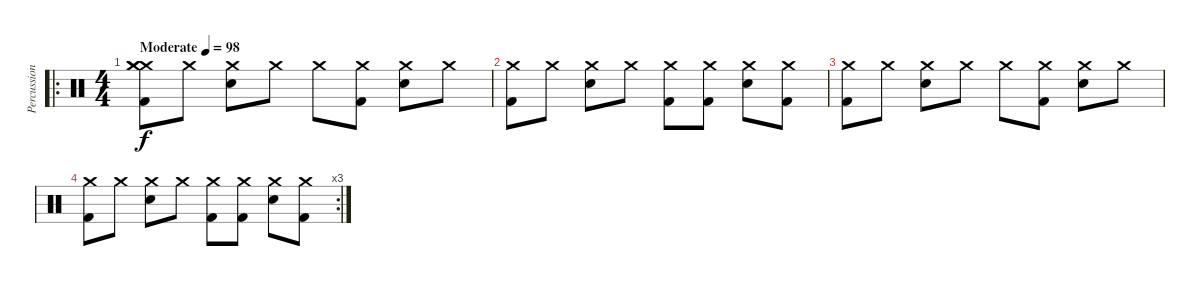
\track ("Percussion" "Percussion") {instrument percussion}
\staff {score}
\articulation defaults
\ro
\ts (4 4)
\tempo (98 "Moderate")
\clef neutral
\ks c
("Crash medium (hit)" "Crash medium (hit)" "Crash medium (hit)" "Kick (hit) 2").8{dy f} "Crash medium (hit)".8 ("Crash medium (hit)" "Electric Snare (hit)").8 "Crash medium (hit)".8 "Crash medium (hit)".8 ("Crash medium (hit)" "Kick (hit) 2").8 ("Crash medium (hit)" "Electric Snare (hit)").8 "Crash medium (hit)".8 |
("Crash medium (hit)" "Kick (hit) 2").8 "Crash medium (hit)".8 ("Crash medium (hit)" "Electric Snare (hit)").8 "Crash medium (hit)".8 ("Crash medium (hit)" "Kick (hit) 2").8 ("Crash medium (hit)" "Kick (hit) 2").8 ("Crash medium (hit)" "Electric Snare (hit)").8 ("Crash medium (hit)" "Kick (hit) 2").8 |
("Crash medium (hit)" "Kick (hit) 2").8 "Crash medium (hit)".8 ("Crash medium (hit)" "Electric Snare (hit)").8 "Crash medium (hit)".8 "Crash medium (hit)".8 ("Crash medium (hit)" "Kick (hit) 2").8 ("Crash medium (hit)" "Electric Snare (hit)").8 "Crash medium (hit)".8 |
\rc 3
("Crash medium (hit)" "Kick (hit) 2").8 "Crash medium (hit)".8 ("Crash medium (hit)" "Electric Snare (hit)").8 "Crash medium (hit)".8 ("Crash medium (hit)" "Kick (hit) 2").8 ("Crash medium (hit)" "Kick (hit) 2").8 ("Crash medium (hit)" "Electric Snare (hit)").8 ("Crash medium (hit)" "Kick (hit) 2").8
